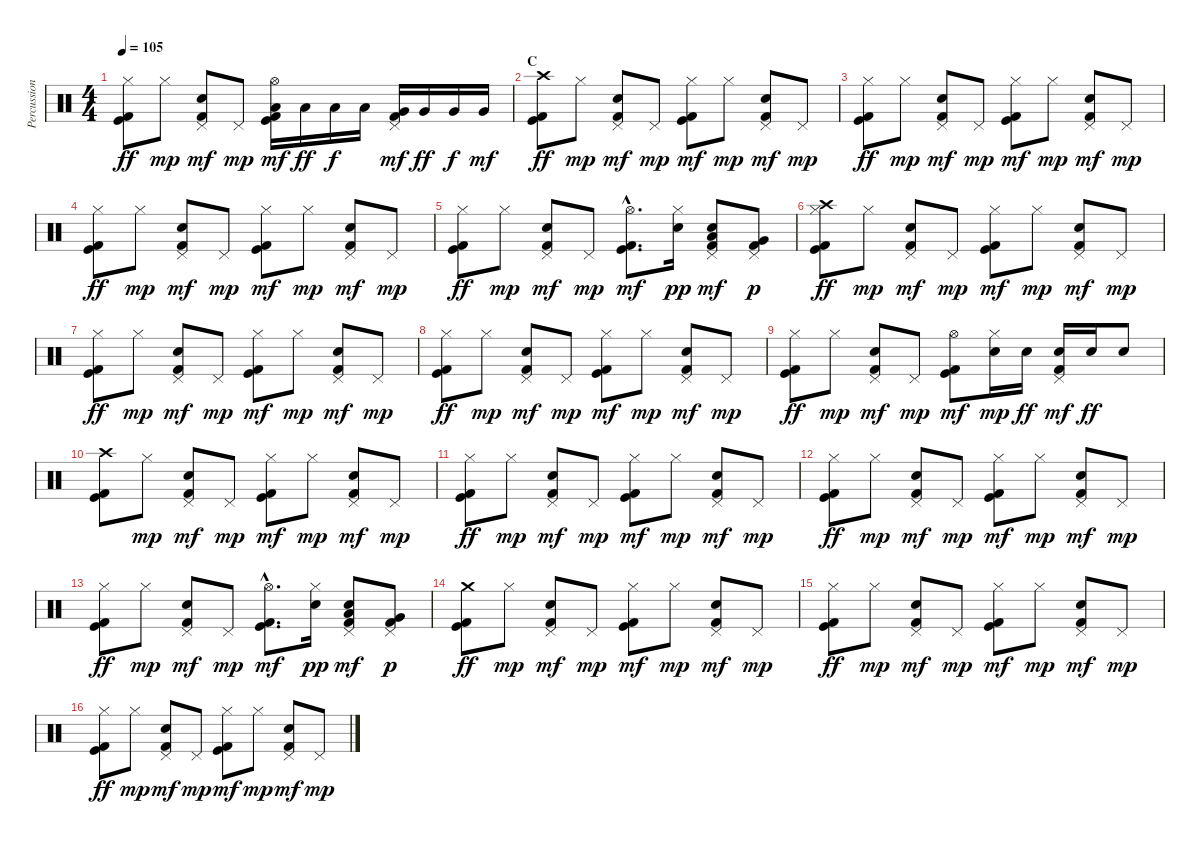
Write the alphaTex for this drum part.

\track ("Percussion" "Percussion") {instrument percussion}
\staff {score}
\articulation defaults
\ts (4 4)
\tempo 105
\clef neutral
\ks c
("Hi-Hat (closed)" "Kick (hit)" "Kick (hit) 2").8{dy ff} "Hi-Hat (closed)".8{dy mp} ("Electric Snare (hit)" "Pedal Hi-Hat (hit)" "Kick (hit) 2").8{dy mf} "Pedal Hi-Hat (hit)".8{dy mp} ("Low Tom (hit)" "Hi-Hat (open)" "Kick (hit)" "Kick (hit) 2").16{dy mf} "Low Tom (hit)".16{dy ff} "Low Tom (hit)".16{dy f} "Low Tom (hit)".16 ("Very Low Tom (hit)" "Pedal Hi-Hat (hit)" "Kick (hit) 2").16{dy mf} "Very Low Tom (hit)".16{dy ff} "Very Low Tom (hit)".16{dy f} "Very Low Tom (hit)".16{dy mf} |
\section ("" "C")
("Crash high (hit)" "Kick (hit)" "Kick (hit) 2").8{dy ff} "Hi-Hat (closed)".8{dy mp} ("Electric Snare (hit)" "Pedal Hi-Hat (hit)" "Kick (hit) 2").8{dy mf} "Pedal Hi-Hat (hit)".8{dy mp} ("Hi-Hat (closed)" "Kick (hit)" "Kick (hit) 2").8{dy mf} "Hi-Hat (closed)".8{dy mp} ("Electric Snare (hit)" "Pedal Hi-Hat (hit)" "Kick (hit) 2").8{dy mf} "Pedal Hi-Hat (hit)".8{dy mp} |
("Hi-Hat (closed)" "Kick (hit)" "Kick (hit) 2").8{dy ff} "Hi-Hat (closed)".8{dy mp} ("Electric Snare (hit)" "Pedal Hi-Hat (hit)" "Kick (hit) 2").8{dy mf} "Pedal Hi-Hat (hit)".8{dy mp} ("Hi-Hat (closed)" "Kick (hit)" "Kick (hit) 2").8{dy mf} "Hi-Hat (closed)".8{dy mp} ("Electric Snare (hit)" "Pedal Hi-Hat (hit)" "Kick (hit) 2").8{dy mf} "Pedal Hi-Hat (hit)".8{dy mp} |
("Hi-Hat (closed)" "Kick (hit)" "Kick (hit) 2").8{dy ff} "Hi-Hat (closed)".8{dy mp} ("Electric Snare (hit)" "Pedal Hi-Hat (hit)" "Kick (hit) 2").8{dy mf} "Pedal Hi-Hat (hit)".8{dy mp} ("Hi-Hat (closed)" "Kick (hit)" "Kick (hit) 2").8{dy mf} "Hi-Hat (closed)".8{dy mp} ("Electric Snare (hit)" "Pedal Hi-Hat (hit)" "Kick (hit) 2").8{dy mf} "Pedal Hi-Hat (hit)".8{dy mp} |
("Hi-Hat (closed)" "Kick (hit)" "Kick (hit) 2").8{dy ff} "Hi-Hat (closed)".8{dy mp} ("Electric Snare (hit)" "Pedal Hi-Hat (hit)" "Kick (hit) 2").8{dy mf} "Pedal Hi-Hat (hit)".8{dy mp} ("Hi-Hat (open)"{hac} "Kick (hit)"{hac} "Kick (hit) 2"{hac}).8{d dy mf} ("Electric Snare (hit)" "Hi-Hat (closed)").16{dy pp} ("Electric Snare (hit)" "Pedal Hi-Hat (hit)" "Low Tom (hit)" "Kick (hit) 2").8{dy mf} ("Pedal Hi-Hat (hit)" "Very Low Tom (hit)" "Kick (hit) 2").8{dy p} |
("Crash high (hit)" "Hi-Hat (closed)" "Kick (hit)" "Kick (hit) 2").8{dy ff} "Hi-Hat (closed)".8{dy mp} ("Electric Snare (hit)" "Pedal Hi-Hat (hit)" "Kick (hit) 2").8{dy mf} "Pedal Hi-Hat (hit)".8{dy mp} ("Hi-Hat (closed)" "Kick (hit)" "Kick (hit) 2").8{dy mf} "Hi-Hat (closed)".8{dy mp} ("Electric Snare (hit)" "Pedal Hi-Hat (hit)" "Kick (hit) 2").8{dy mf} "Pedal Hi-Hat (hit)".8{dy mp} |
("Hi-Hat (closed)" "Kick (hit)" "Kick (hit) 2").8{dy ff} "Hi-Hat (closed)".8{dy mp} ("Electric Snare (hit)" "Pedal Hi-Hat (hit)" "Kick (hit) 2").8{dy mf} "Pedal Hi-Hat (hit)".8{dy mp} ("Hi-Hat (closed)" "Kick (hit)" "Kick (hit) 2").8{dy mf} "Hi-Hat (closed)".8{dy mp} ("Electric Snare (hit)" "Pedal Hi-Hat (hit)" "Kick (hit) 2").8{dy mf} "Pedal Hi-Hat (hit)".8{dy mp} |
("Hi-Hat (closed)" "Kick (hit)" "Kick (hit) 2").8{dy ff} "Hi-Hat (closed)".8{dy mp} ("Electric Snare (hit)" "Pedal Hi-Hat (hit)" "Kick (hit) 2").8{dy mf} "Pedal Hi-Hat (hit)".8{dy mp} ("Hi-Hat (closed)" "Kick (hit)" "Kick (hit) 2").8{dy mf} "Hi-Hat (closed)".8{dy mp} ("Electric Snare (hit)" "Pedal Hi-Hat (hit)" "Kick (hit) 2").8{dy mf} "Pedal Hi-Hat (hit)".8{dy mp} |
("Hi-Hat (closed)" "Kick (hit)" "Kick (hit) 2").8{dy ff} "Hi-Hat (closed)".8{dy mp} ("Electric Snare (hit)" "Pedal Hi-Hat (hit)" "Kick (hit) 2").8{dy mf} "Pedal Hi-Hat (hit)".8{dy mp} ("Hi-Hat (open)" "Kick (hit)" "Kick (hit) 2").8{dy mf} ("Electric Snare (hit)" "Hi-Hat (closed)").16{dy mp} "Electric Snare (hit)".16{dy ff} ("Electric Snare (hit)" "Pedal Hi-Hat (hit)" "Kick (hit) 2").16{dy mf} "Electric Snare (hit)".16{dy ff} "Electric Snare (hit)".8 |
("Crash high (hit)" "Kick (hit)" "Kick (hit) 2").8 "Hi-Hat (closed)".8{dy mp} ("Electric Snare (hit)" "Pedal Hi-Hat (hit)" "Kick (hit) 2").8{dy mf} "Pedal Hi-Hat (hit)".8{dy mp} ("Hi-Hat (closed)" "Kick (hit)" "Kick (hit) 2").8{dy mf} "Hi-Hat (closed)".8{dy mp} ("Electric Snare (hit)" "Pedal Hi-Hat (hit)" "Kick (hit) 2").8{dy mf} "Pedal Hi-Hat (hit)".8{dy mp} |
("Hi-Hat (closed)" "Kick (hit)" "Kick (hit) 2").8{dy ff} "Hi-Hat (closed)".8{dy mp} ("Electric Snare (hit)" "Pedal Hi-Hat (hit)" "Kick (hit) 2").8{dy mf} "Pedal Hi-Hat (hit)".8{dy mp} ("Hi-Hat (closed)" "Kick (hit)" "Kick (hit) 2").8{dy mf} "Hi-Hat (closed)".8{dy mp} ("Electric Snare (hit)" "Pedal Hi-Hat (hit)" "Kick (hit) 2").8{dy mf} "Pedal Hi-Hat (hit)".8{dy mp} |
("Hi-Hat (closed)" "Kick (hit)" "Kick (hit) 2").8{dy ff} "Hi-Hat (closed)".8{dy mp} ("Electric Snare (hit)" "Pedal Hi-Hat (hit)" "Kick (hit) 2").8{dy mf} "Pedal Hi-Hat (hit)".8{dy mp} ("Hi-Hat (closed)" "Kick (hit)" "Kick (hit) 2").8{dy mf} "Hi-Hat (closed)".8{dy mp} ("Electric Snare (hit)" "Pedal Hi-Hat (hit)" "Kick (hit) 2").8{dy mf} "Pedal Hi-Hat (hit)".8{dy mp} |
("Hi-Hat (closed)" "Kick (hit)" "Kick (hit) 2").8{dy ff} "Hi-Hat (closed)".8{dy mp} ("Electric Snare (hit)" "Pedal Hi-Hat (hit)" "Kick (hit) 2").8{dy mf} "Pedal Hi-Hat (hit)".8{dy mp} ("Hi-Hat (open)"{hac} "Kick (hit)"{hac} "Kick (hit) 2"{hac}).8{d dy mf} ("Electric Snare (hit)" "Hi-Hat (closed)").16{dy pp} ("Electric Snare (hit)" "Pedal Hi-Hat (hit)" "Low Tom (hit)" "Kick (hit) 2").8{dy mf} ("Pedal Hi-Hat (hit)" "Very Low Tom (hit)" "Kick (hit) 2").8{dy p} |
("Crash medium (hit)" "Kick (hit)" "Kick (hit) 2").8{dy ff} "Hi-Hat (closed)".8{dy mp} ("Electric Snare (hit)" "Pedal Hi-Hat (hit)" "Kick (hit) 2").8{dy mf} "Pedal Hi-Hat (hit)".8{dy mp} ("Hi-Hat (closed)" "Kick (hit)" "Kick (hit) 2").8{dy mf} "Hi-Hat (closed)".8{dy mp} ("Electric Snare (hit)" "Pedal Hi-Hat (hit)" "Kick (hit) 2").8{dy mf} "Pedal Hi-Hat (hit)".8{dy mp} |
("Hi-Hat (closed)" "Kick (hit)" "Kick (hit) 2").8{dy ff} "Hi-Hat (closed)".8{dy mp} ("Electric Snare (hit)" "Pedal Hi-Hat (hit)" "Kick (hit) 2").8{dy mf} "Pedal Hi-Hat (hit)".8{dy mp} ("Hi-Hat (closed)" "Kick (hit)" "Kick (hit) 2").8{dy mf} "Hi-Hat (closed)".8{dy mp} ("Electric Snare (hit)" "Pedal Hi-Hat (hit)" "Kick (hit) 2").8{dy mf} "Pedal Hi-Hat (hit)".8{dy mp} |
("Hi-Hat (closed)" "Kick (hit)" "Kick (hit) 2").8{dy ff} "Hi-Hat (closed)".8{dy mp} ("Electric Snare (hit)" "Pedal Hi-Hat (hit)" "Kick (hit) 2").8{dy mf} "Pedal Hi-Hat (hit)".8{dy mp} ("Hi-Hat (closed)" "Kick (hit)" "Kick (hit) 2").8{dy mf} "Hi-Hat (closed)".8{dy mp} ("Electric Snare (hit)" "Pedal Hi-Hat (hit)" "Kick (hit) 2").8{dy mf} "Pedal Hi-Hat (hit)".8{dy mp}
